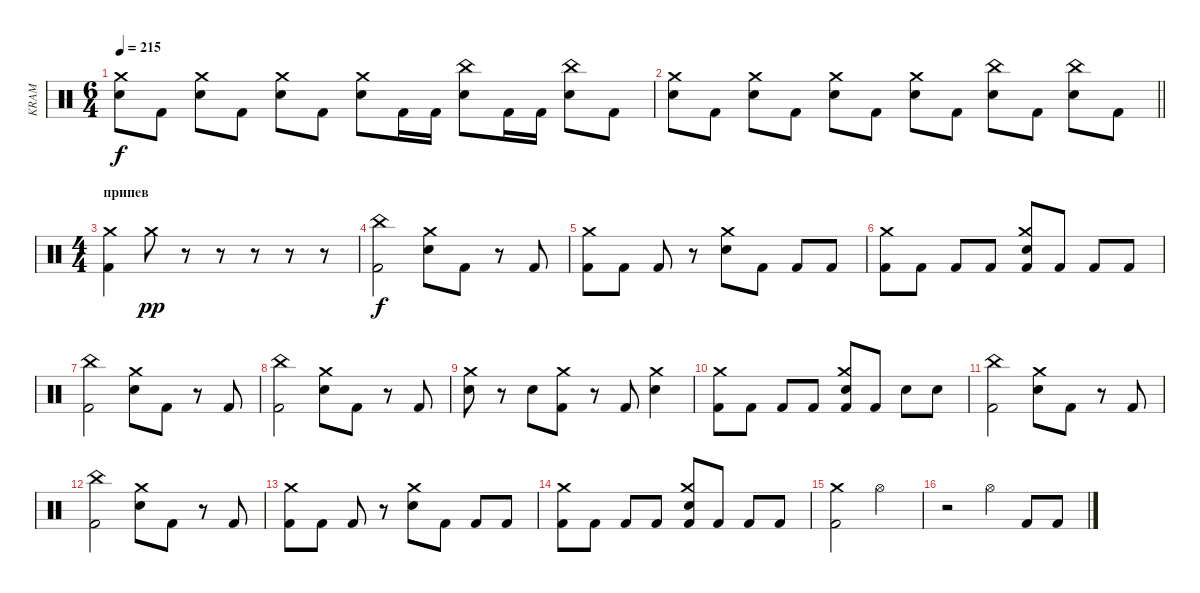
\track ("KRAM" "KRAM") {instrument percussion}
\staff {score}
\articulation defaults
\ts (6 4)
\tempo 215
\clef neutral
\ks c
("Electric Snare (hit)" "Crash medium (hit)").8{dy f} "Kick (hit) 2".8 ("Electric Snare (hit)" "Crash medium (hit)").8 "Kick (hit) 2".8 ("Electric Snare (hit)" "Crash medium (hit)").8 "Kick (hit) 2".8 ("Electric Snare (hit)" "Crash medium (hit)").8 "Kick (hit) 2".16 "Kick (hit) 2".16 ("Electric Snare (hit)" "China (hit)").8 "Kick (hit) 2".16 "Kick (hit) 2".16 ("Electric Snare (hit)" "China (hit)").8 "Kick (hit) 2".8 |
\barLineRight lightlight
("Electric Snare (hit)" "Crash medium (hit)").8 "Kick (hit) 2".8 ("Electric Snare (hit)" "Crash medium (hit)").8 "Kick (hit) 2".8 ("Electric Snare (hit)" "Crash medium (hit)").8 "Kick (hit) 2".8 ("Electric Snare (hit)" "Crash medium (hit)").8 "Kick (hit) 2".8 ("Electric Snare (hit)" "China (hit)").8 "Kick (hit) 2".8 ("Electric Snare (hit)" "China (hit)").8 "Kick (hit) 2".8 |
\ts (4 4)
\section ("" "припев")
("Kick (hit) 2" "Crash medium (hit)").4 "Crash medium (hit)".8{dy pp} r.8 r.8 r.8 r.8 r.8 |
("Kick (hit) 2" "China (hit)").2{dy f} ("Electric Snare (hit)" "Crash medium (hit)").8 "Kick (hit) 2".8 r.8 "Kick (hit) 2".8 |
("Kick (hit) 2" "Crash medium (hit)").8 "Kick (hit) 2".8 "Kick (hit) 2".8 r.8 ("Electric Snare (hit)" "Crash medium (hit)").8 "Kick (hit) 2".8 "Kick (hit) 2".8 "Kick (hit) 2".8 |
("Kick (hit) 2" "Crash medium (hit)").8 "Kick (hit) 2".8 "Kick (hit) 2".8 "Kick (hit) 2".8 ("Kick (hit) 2" "Electric Snare (hit)" "Crash medium (hit)").8 "Kick (hit) 2".8 "Kick (hit) 2".8 "Kick (hit) 2".8 |
("Kick (hit) 2" "China (hit)").2 ("Electric Snare (hit)" "Crash medium (hit)").8 "Kick (hit) 2".8 r.8 "Kick (hit) 2".8 |
("Kick (hit) 2" "China (hit)").2 ("Electric Snare (hit)" "Crash medium (hit)").8 "Kick (hit) 2".8 r.8 "Kick (hit) 2".8 |
("Electric Snare (hit)" "Crash medium (hit)").8 r.8 "Electric Snare (hit)".8 ("Kick (hit) 2" "Crash medium (hit)").8 r.8 "Kick (hit) 2".8 ("Electric Snare (hit)" "Crash medium (hit)").4 |
("Kick (hit) 2" "Crash medium (hit)").8 "Kick (hit) 2".8 "Kick (hit) 2".8 "Kick (hit) 2".8 ("Kick (hit) 2" "Electric Snare (hit)" "Crash medium (hit)").8 "Kick (hit) 2".8 "Electric Snare (hit)".8 "Electric Snare (hit)".8 |
("Kick (hit) 2" "China (hit)").2 ("Electric Snare (hit)" "Crash medium (hit)").8 "Kick (hit) 2".8 r.8 "Kick (hit) 2".8 |
("Kick (hit) 2" "China (hit)").2 ("Electric Snare (hit)" "Crash medium (hit)").8 "Kick (hit) 2".8 r.8 "Kick (hit) 2".8 |
("Kick (hit) 2" "Crash medium (hit)").8 "Kick (hit) 2".8 "Kick (hit) 2".8 r.8 ("Electric Snare (hit)" "Crash medium (hit)").8 "Kick (hit) 2".8 "Kick (hit) 2".8 "Kick (hit) 2".8 |
("Kick (hit) 2" "Crash medium (hit)").8 "Kick (hit) 2".8 "Kick (hit) 2".8 "Kick (hit) 2".8 ("Kick (hit) 2" "Electric Snare (hit)" "Crash medium (hit)").8 "Kick (hit) 2".8 "Kick (hit) 2".8 "Kick (hit) 2".8 |
("Kick (hit) 2" "Crash medium (hit)").2 "Hi-Hat (open)".2 |
r.2 "Hi-Hat (open)".4 "Kick (hit) 2".8 "Kick (hit) 2".8
